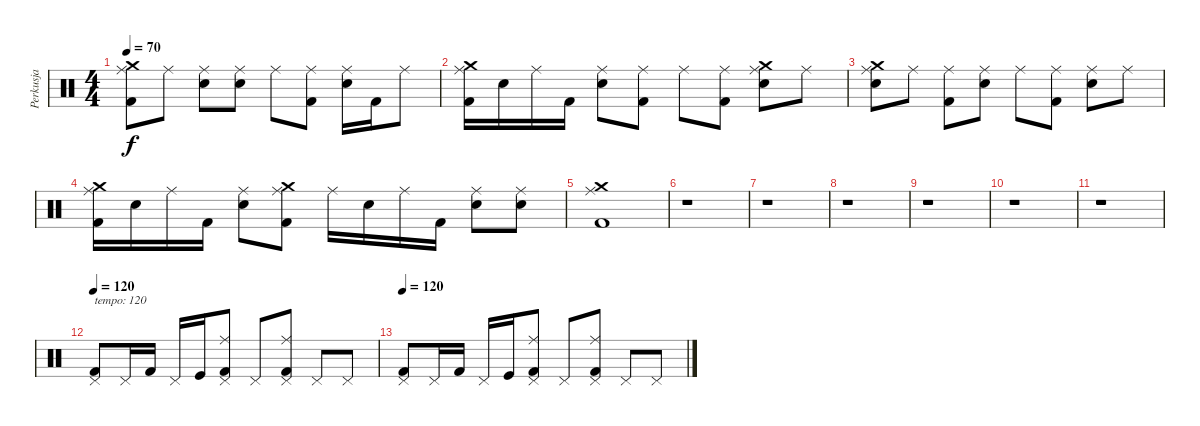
\track ("Perkusja" "Perkusja") {instrument percussion}
\staff {score}
\articulation defaults
\ts (4 4)
\tempo 70
\clef neutral
\ks c
("Ride (middle)" "Kick (hit) 2" "Crash medium (hit)").8{dy f} "Ride (middle)".8 ("Ride (middle)" "Electric Snare (hit)").8 ("Ride (middle)" "Electric Snare (hit)").8 "Ride (middle)".8 ("Ride (middle)" "Kick (hit) 2").8 ("Ride (middle)" "Electric Snare (hit)").16 "Kick (hit) 2".16 "Ride (middle)".8 |
("Ride (middle)" "Kick (hit) 2" "Crash medium (hit)").16 "Electric Snare (hit)".16 "Ride (middle)".16 "Kick (hit) 2".16 ("Ride (middle)" "Electric Snare (hit)").8 ("Ride (middle)" "Kick (hit) 2").8 "Ride (middle)".8 ("Ride (middle)" "Kick (hit) 2").8 ("Ride (middle)" "Electric Snare (hit)" "Crash medium (hit)").8 "Ride (middle)".8 |
("Ride (middle)" "Electric Snare (hit)" "Crash medium (hit)").8 "Ride (middle)".8 ("Ride (middle)" "Kick (hit) 2").8 ("Ride (middle)" "Electric Snare (hit)").8 "Ride (middle)".8 ("Ride (middle)" "Kick (hit) 2").8 ("Ride (middle)" "Electric Snare (hit)").8 "Ride (middle)".8 |
("Ride (middle)" "Kick (hit) 2" "Crash medium (hit)").16 "Electric Snare (hit)".16 "Ride (middle)".16 "Kick (hit) 2".16 ("Ride (middle)" "Electric Snare (hit)").8 ("Ride (middle)" "Kick (hit) 2" "Crash medium (hit)").8 "Ride (middle)".16 "Electric Snare (hit)".16 "Ride (middle)".16 "Kick (hit) 2".16 ("Ride (middle)" "Electric Snare (hit)").8 ("Ride (middle)" "Electric Snare (hit)").8 |
("Ride (middle)" "Kick (hit) 2" "Crash medium (hit)").1 |
r.1 |
r.1 |
r.1 |
r.1 |
r.1 |
r.1 |
\tempo 120
("Pedal Hi-Hat (hit)" "Kick (hit) 2").8{txt "tempo: 120"} "Pedal Hi-Hat (hit)".16 "Kick (hit) 2".16 "Pedal Hi-Hat (hit)".16 "Kick (hit)".16 ("Pedal Hi-Hat (hit)" "Ride (middle)" "Kick (hit) 2").8 "Pedal Hi-Hat (hit)".8 ("Pedal Hi-Hat (hit)" "Ride (middle)" "Kick (hit) 2").8 "Pedal Hi-Hat (hit)".8 "Pedal Hi-Hat (hit)".8 |
\tempo 120
("Pedal Hi-Hat (hit)" "Kick (hit) 2").8 "Pedal Hi-Hat (hit)".16 "Kick (hit) 2".16 "Pedal Hi-Hat (hit)".16 "Kick (hit)".16 ("Pedal Hi-Hat (hit)" "Ride (middle)" "Kick (hit) 2").8 "Pedal Hi-Hat (hit)".8 ("Pedal Hi-Hat (hit)" "Ride (middle)" "Kick (hit) 2").8 "Pedal Hi-Hat (hit)".8 "Pedal Hi-Hat (hit)".8
